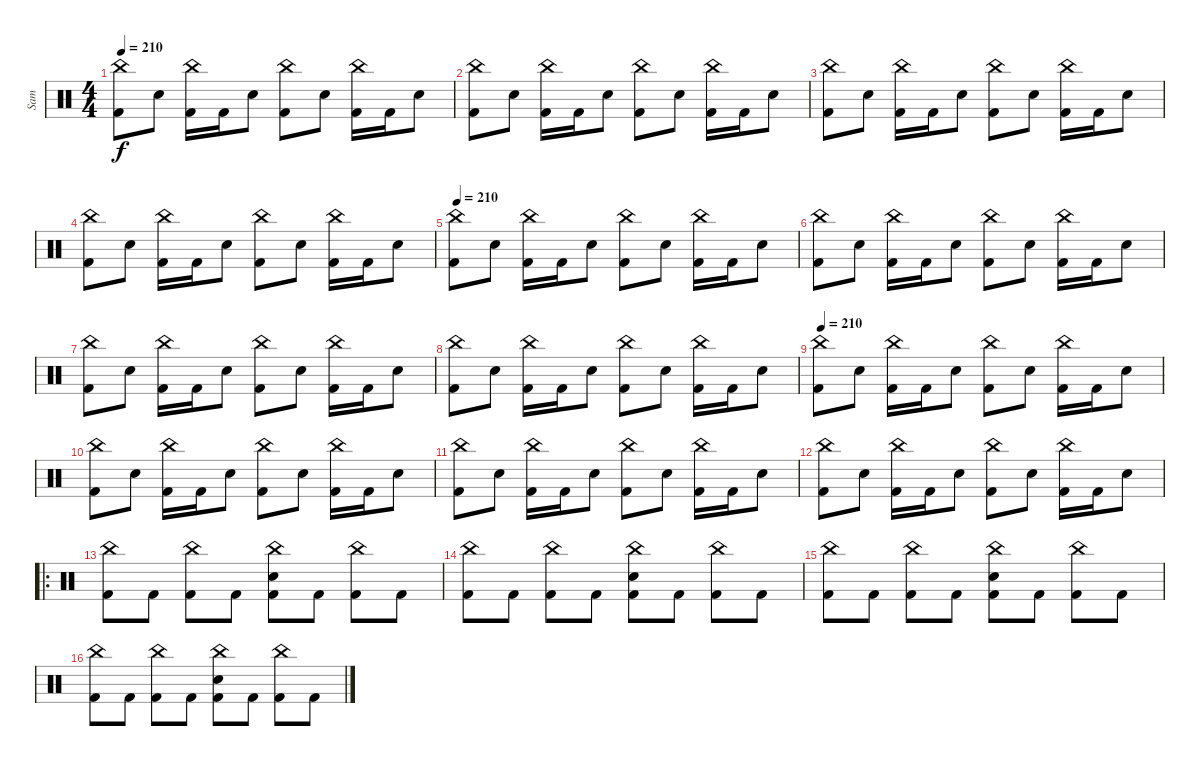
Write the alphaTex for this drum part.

\track ("Sam" "Sam") {instrument percussion}
\staff {score}
\articulation defaults
\ts (4 4)
\tempo 210
\clef neutral
\ks c
("China (hit)" "Kick (hit) 2").8{dy f} "Snare (hit) 2".8 ("China (hit)" "Kick (hit) 2").16 "Kick (hit) 2".16 "Snare (hit) 2".8 ("China (hit)" "Kick (hit) 2").8 "Snare (hit) 2".8 ("China (hit)" "Kick (hit) 2").16 "Kick (hit) 2".16 "Snare (hit) 2".8 |
("China (hit)" "Kick (hit) 2").8 "Snare (hit) 2".8 ("China (hit)" "Kick (hit) 2").16 "Kick (hit) 2".16 "Snare (hit) 2".8 ("China (hit)" "Kick (hit) 2").8 "Snare (hit) 2".8 ("China (hit)" "Kick (hit) 2").16 "Kick (hit) 2".16 "Snare (hit) 2".8 |
("China (hit)" "Kick (hit) 2").8 "Snare (hit) 2".8 ("China (hit)" "Kick (hit) 2").16 "Kick (hit) 2".16 "Snare (hit) 2".8 ("China (hit)" "Kick (hit) 2").8 "Snare (hit) 2".8 ("China (hit)" "Kick (hit) 2").16 "Kick (hit) 2".16 "Snare (hit) 2".8 |
("China (hit)" "Kick (hit) 2").8 "Snare (hit) 2".8 ("China (hit)" "Kick (hit) 2").16 "Kick (hit) 2".16 "Snare (hit) 2".8 ("China (hit)" "Kick (hit) 2").8 "Snare (hit) 2".8 ("China (hit)" "Kick (hit) 2").16 "Kick (hit) 2".16 "Snare (hit) 2".8 |
\tempo 210
("China (hit)" "Kick (hit) 2").8 "Snare (hit) 2".8 ("China (hit)" "Kick (hit) 2").16 "Kick (hit) 2".16 "Snare (hit) 2".8 ("China (hit)" "Kick (hit) 2").8 "Snare (hit) 2".8 ("China (hit)" "Kick (hit) 2").16 "Kick (hit) 2".16 "Snare (hit) 2".8 |
("China (hit)" "Kick (hit) 2").8 "Snare (hit) 2".8 ("China (hit)" "Kick (hit) 2").16 "Kick (hit) 2".16 "Snare (hit) 2".8 ("China (hit)" "Kick (hit) 2").8 "Snare (hit) 2".8 ("China (hit)" "Kick (hit) 2").16 "Kick (hit) 2".16 "Snare (hit) 2".8 |
("China (hit)" "Kick (hit) 2").8 "Snare (hit) 2".8 ("China (hit)" "Kick (hit) 2").16 "Kick (hit) 2".16 "Snare (hit) 2".8 ("China (hit)" "Kick (hit) 2").8 "Snare (hit) 2".8 ("China (hit)" "Kick (hit) 2").16 "Kick (hit) 2".16 "Snare (hit) 2".8 |
("China (hit)" "Kick (hit) 2").8 "Snare (hit) 2".8 ("China (hit)" "Kick (hit) 2").16 "Kick (hit) 2".16 "Snare (hit) 2".8 ("China (hit)" "Kick (hit) 2").8 "Snare (hit) 2".8 ("China (hit)" "Kick (hit) 2").16 "Kick (hit) 2".16 "Snare (hit) 2".8 |
\tempo 210
("China (hit)" "Kick (hit) 2").8 "Snare (hit) 2".8 ("China (hit)" "Kick (hit) 2").16 "Kick (hit) 2".16 "Snare (hit) 2".8 ("China (hit)" "Kick (hit) 2").8 "Snare (hit) 2".8 ("China (hit)" "Kick (hit) 2").16 "Kick (hit) 2".16 "Snare (hit) 2".8 |
("China (hit)" "Kick (hit) 2").8 "Snare (hit) 2".8 ("China (hit)" "Kick (hit) 2").16 "Kick (hit) 2".16 "Snare (hit) 2".8 ("China (hit)" "Kick (hit) 2").8 "Snare (hit) 2".8 ("China (hit)" "Kick (hit) 2").16 "Kick (hit) 2".16 "Snare (hit) 2".8 |
("China (hit)" "Kick (hit) 2").8 "Snare (hit) 2".8 ("China (hit)" "Kick (hit) 2").16 "Kick (hit) 2".16 "Snare (hit) 2".8 ("China (hit)" "Kick (hit) 2").8 "Snare (hit) 2".8 ("China (hit)" "Kick (hit) 2").16 "Kick (hit) 2".16 "Snare (hit) 2".8 |
("China (hit)" "Kick (hit) 2").8 "Snare (hit) 2".8 ("China (hit)" "Kick (hit) 2").16 "Kick (hit) 2".16 "Snare (hit) 2".8 ("China (hit)" "Kick (hit) 2").8 "Snare (hit) 2".8 ("China (hit)" "Kick (hit) 2").16 "Kick (hit) 2".16 "Snare (hit) 2".8 |
\ro
("China (hit)" "Kick (hit) 2").8 "Kick (hit) 2".8 ("China (hit)" "Kick (hit) 2").8 "Kick (hit) 2".8 ("China (hit)" "Snare (hit) 2" "Kick (hit) 2").8 "Kick (hit) 2".8 ("China (hit)" "Kick (hit) 2").8 "Kick (hit) 2".8 |
("China (hit)" "Kick (hit) 2").8 "Kick (hit) 2".8 ("China (hit)" "Kick (hit) 2").8 "Kick (hit) 2".8 ("China (hit)" "Snare (hit) 2" "Kick (hit) 2").8 "Kick (hit) 2".8 ("China (hit)" "Kick (hit) 2").8 "Kick (hit) 2".8 |
("China (hit)" "Kick (hit) 2").8 "Kick (hit) 2".8 ("China (hit)" "Kick (hit) 2").8 "Kick (hit) 2".8 ("China (hit)" "Snare (hit) 2" "Kick (hit) 2").8 "Kick (hit) 2".8 ("China (hit)" "Kick (hit) 2").8 "Kick (hit) 2".8 |
("China (hit)" "Kick (hit) 2").8 "Kick (hit) 2".8 ("China (hit)" "Kick (hit) 2").8 "Kick (hit) 2".8 ("China (hit)" "Snare (hit) 2" "Kick (hit) 2").8 "Kick (hit) 2".8 ("China (hit)" "Kick (hit) 2").8 "Kick (hit) 2".8
